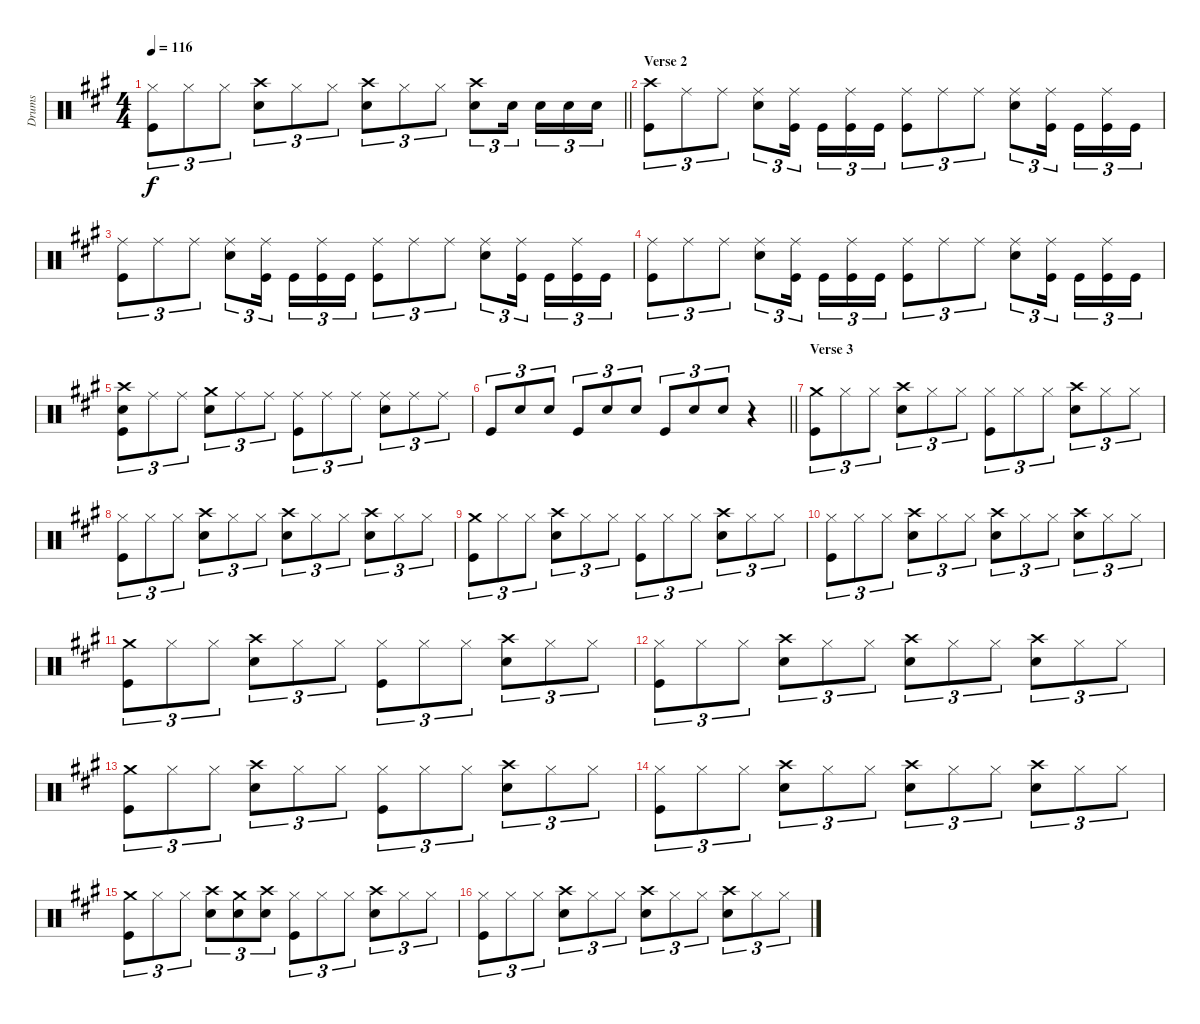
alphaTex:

\track ("Drums" "Drums") {instrument percussion}
\staff {score}
\articulation defaults
\ts (4 4)
\tempo 116
\clef neutral
\barLineRight lightlight
\ks a
("Hi-Hat (closed)" "Kick (hit)").8{tu (3 2) dy f} "Hi-Hat (closed)".8{tu (3 2)} "Hi-Hat (closed)".8{tu (3 2)} ("Crash high (hit)" "Snare (hit) 2").8{tu (3 2)} "Hi-Hat (closed)".8{tu (3 2)} "Hi-Hat (closed)".8{tu (3 2)} ("Crash high (hit)" "Snare (hit) 2").8{tu (3 2)} "Hi-Hat (closed)".8{tu (3 2)} "Hi-Hat (closed)".8{tu (3 2)} ("Crash high (hit)" "Snare (hit) 2").8{tu (3 2)} "Snare (hit) 2".16{tu (3 2) beam splitsecondary} "Snare (hit) 2".16{tu (3 2)} "Snare (hit) 2".16{tu (3 2)} "Snare (hit) 2".16{tu (3 2)} |
\section ("" "Verse 2")
("Crash high (hit)" "Kick (hit)").8{tu (3 2)} "Ride (middle)".8{tu (3 2)} "Ride (middle)".8{tu (3 2)} ("Ride (middle)" "Snare (hit) 2").8{tu (3 2)} ("Ride (middle)" "Kick (hit)").16{tu (3 2) beam splitsecondary} "Kick (hit)".16{tu (3 2)} ("Ride (middle)" "Kick (hit)").16{tu (3 2)} "Kick (hit)".16{tu (3 2)} ("Ride (middle)" "Kick (hit)").8{tu (3 2)} "Ride (middle)".8{tu (3 2)} "Ride (middle)".8{tu (3 2)} ("Ride (middle)" "Snare (hit) 2").8{tu (3 2)} ("Ride (middle)" "Kick (hit)").16{tu (3 2) beam splitsecondary} "Kick (hit)".16{tu (3 2)} ("Ride (middle)" "Kick (hit)").16{tu (3 2)} "Kick (hit)".16{tu (3 2)} |
("Ride (middle)" "Kick (hit)").8{tu (3 2)} "Ride (middle)".8{tu (3 2)} "Ride (middle)".8{tu (3 2)} ("Ride (middle)" "Snare (hit) 2").8{tu (3 2)} ("Ride (middle)" "Kick (hit)").16{tu (3 2) beam splitsecondary} "Kick (hit)".16{tu (3 2)} ("Ride (middle)" "Kick (hit)").16{tu (3 2)} "Kick (hit)".16{tu (3 2)} ("Ride (middle)" "Kick (hit)").8{tu (3 2)} "Ride (middle)".8{tu (3 2)} "Ride (middle)".8{tu (3 2)} ("Ride (middle)" "Snare (hit) 2").8{tu (3 2)} ("Ride (middle)" "Kick (hit)").16{tu (3 2) beam splitsecondary} "Kick (hit)".16{tu (3 2)} ("Ride (middle)" "Kick (hit)").16{tu (3 2)} "Kick (hit)".16{tu (3 2)} |
("Ride (middle)" "Kick (hit)").8{tu (3 2)} "Ride (middle)".8{tu (3 2)} "Ride (middle)".8{tu (3 2)} ("Ride (middle)" "Snare (hit) 2").8{tu (3 2)} ("Ride (middle)" "Kick (hit)").16{tu (3 2) beam splitsecondary} "Kick (hit)".16{tu (3 2)} ("Ride (middle)" "Kick (hit)").16{tu (3 2)} "Kick (hit)".16{tu (3 2)} ("Ride (middle)" "Kick (hit)").8{tu (3 2)} "Ride (middle)".8{tu (3 2)} "Ride (middle)".8{tu (3 2)} ("Ride (middle)" "Snare (hit) 2").8{tu (3 2)} ("Ride (middle)" "Kick (hit)").16{tu (3 2) beam splitsecondary} "Kick (hit)".16{tu (3 2)} ("Ride (middle)" "Kick (hit)").16{tu (3 2)} "Kick (hit)".16{tu (3 2)} |
("Crash high (hit)" "Snare (hit) 2" "Kick (hit)").8{tu (3 2)} "Ride (middle)".8{tu (3 2)} "Ride (middle)".8{tu (3 2)} ("Crash medium (hit)" "Snare (hit) 2").8{tu (3 2)} "Ride (middle)".8{tu (3 2)} "Ride (middle)".8{tu (3 2)} ("Ride (middle)" "Kick (hit)").8{tu (3 2)} "Ride (middle)".8{tu (3 2)} "Ride (middle)".8{tu (3 2)} ("Ride (middle)" "Snare (hit) 2").8{tu (3 2)} "Ride (middle)".8{tu (3 2)} "Ride (middle)".8{tu (3 2)} |
\barLineRight lightlight "Kick (hit)".8{tu (3 2)} "Snare (hit) 2".8{tu (3 2)} "Snare (hit) 2".8{tu (3 2)} "Kick (hit)".8{tu (3 2)} "Snare (hit) 2".8{tu (3 2)} "Snare (hit) 2".8{tu (3 2)} "Kick (hit)".8{tu (3 2)} "Snare (hit) 2".8{tu (3 2)} "Snare (hit) 2".8{tu (3 2)}
r.4 |
\section ("" "Verse 3")
("Crash medium (hit)" "Kick (hit)").8{tu (3 2)} "Hi-Hat (closed)".8{tu (3 2)} "Hi-Hat (closed)".8{tu (3 2)} ("Crash high (hit)" "Snare (hit) 2").8{tu (3 2)} "Hi-Hat (closed)".8{tu (3 2)} "Hi-Hat (closed)".8{tu (3 2)} ("Hi-Hat (closed)" "Kick (hit)").8{tu (3 2)} "Hi-Hat (closed)".8{tu (3 2)} "Hi-Hat (closed)".8{tu (3 2)} ("Crash high (hit)" "Snare (hit) 2").8{tu (3 2)} "Hi-Hat (closed)".8{tu (3 2)} "Hi-Hat (closed)".8{tu (3 2)} |
("Hi-Hat (closed)" "Kick (hit)").8{tu (3 2)} "Hi-Hat (closed)".8{tu (3 2)} "Hi-Hat (closed)".8{tu (3 2)} ("Crash high (hit)" "Snare (hit) 2").8{tu (3 2)} "Hi-Hat (closed)".8{tu (3 2)} "Hi-Hat (closed)".8{tu (3 2)} ("Crash high (hit)" "Snare (hit) 2").8{tu (3 2)} "Hi-Hat (closed)".8{tu (3 2)} "Hi-Hat (closed)".8{tu (3 2)} ("Crash high (hit)" "Snare (hit) 2").8{tu (3 2)} "Hi-Hat (closed)".8{tu (3 2)} "Hi-Hat (closed)".8{tu (3 2)} |
("Crash medium (hit)" "Kick (hit)").8{tu (3 2)} "Hi-Hat (closed)".8{tu (3 2)} "Hi-Hat (closed)".8{tu (3 2)} ("Crash high (hit)" "Snare (hit) 2").8{tu (3 2)} "Hi-Hat (closed)".8{tu (3 2)} "Hi-Hat (closed)".8{tu (3 2)} ("Hi-Hat (closed)" "Kick (hit)").8{tu (3 2)} "Hi-Hat (closed)".8{tu (3 2)} "Hi-Hat (closed)".8{tu (3 2)} ("Crash high (hit)" "Snare (hit) 2").8{tu (3 2)} "Hi-Hat (closed)".8{tu (3 2)} "Hi-Hat (closed)".8{tu (3 2)} |
("Hi-Hat (closed)" "Kick (hit)").8{tu (3 2)} "Hi-Hat (closed)".8{tu (3 2)} "Hi-Hat (closed)".8{tu (3 2)} ("Crash high (hit)" "Snare (hit) 2").8{tu (3 2)} "Hi-Hat (closed)".8{tu (3 2)} "Hi-Hat (closed)".8{tu (3 2)} ("Crash high (hit)" "Snare (hit) 2").8{tu (3 2)} "Hi-Hat (closed)".8{tu (3 2)} "Hi-Hat (closed)".8{tu (3 2)} ("Crash high (hit)" "Snare (hit) 2").8{tu (3 2)} "Hi-Hat (closed)".8{tu (3 2)} "Hi-Hat (closed)".8{tu (3 2)} |
("Crash medium (hit)" "Kick (hit)").8{tu (3 2)} "Hi-Hat (closed)".8{tu (3 2)} "Hi-Hat (closed)".8{tu (3 2)} ("Crash high (hit)" "Snare (hit) 2").8{tu (3 2)} "Hi-Hat (closed)".8{tu (3 2)} "Hi-Hat (closed)".8{tu (3 2)} ("Hi-Hat (closed)" "Kick (hit)").8{tu (3 2)} "Hi-Hat (closed)".8{tu (3 2)} "Hi-Hat (closed)".8{tu (3 2)} ("Crash high (hit)" "Snare (hit) 2").8{tu (3 2)} "Hi-Hat (closed)".8{tu (3 2)} "Hi-Hat (closed)".8{tu (3 2)} |
("Hi-Hat (closed)" "Kick (hit)").8{tu (3 2)} "Hi-Hat (closed)".8{tu (3 2)} "Hi-Hat (closed)".8{tu (3 2)} ("Crash high (hit)" "Snare (hit) 2").8{tu (3 2)} "Hi-Hat (closed)".8{tu (3 2)} "Hi-Hat (closed)".8{tu (3 2)} ("Crash high (hit)" "Snare (hit) 2").8{tu (3 2)} "Hi-Hat (closed)".8{tu (3 2)} "Hi-Hat (closed)".8{tu (3 2)} ("Crash high (hit)" "Snare (hit) 2").8{tu (3 2)} "Hi-Hat (closed)".8{tu (3 2)} "Hi-Hat (closed)".8{tu (3 2)} |
("Crash medium (hit)" "Kick (hit)").8{tu (3 2)} "Hi-Hat (closed)".8{tu (3 2)} "Hi-Hat (closed)".8{tu (3 2)} ("Crash high (hit)" "Snare (hit) 2").8{tu (3 2)} "Hi-Hat (closed)".8{tu (3 2)} "Hi-Hat (closed)".8{tu (3 2)} ("Hi-Hat (closed)" "Kick (hit)").8{tu (3 2)} "Hi-Hat (closed)".8{tu (3 2)} "Hi-Hat (closed)".8{tu (3 2)} ("Crash high (hit)" "Snare (hit) 2").8{tu (3 2)} "Hi-Hat (closed)".8{tu (3 2)} "Hi-Hat (closed)".8{tu (3 2)} |
("Hi-Hat (closed)" "Kick (hit)").8{tu (3 2)} "Hi-Hat (closed)".8{tu (3 2)} "Hi-Hat (closed)".8{tu (3 2)} ("Crash high (hit)" "Snare (hit) 2").8{tu (3 2)} "Hi-Hat (closed)".8{tu (3 2)} "Hi-Hat (closed)".8{tu (3 2)} ("Crash high (hit)" "Snare (hit) 2").8{tu (3 2)} "Hi-Hat (closed)".8{tu (3 2)} "Hi-Hat (closed)".8{tu (3 2)} ("Crash high (hit)" "Snare (hit) 2").8{tu (3 2)} "Hi-Hat (closed)".8{tu (3 2)} "Hi-Hat (closed)".8{tu (3 2)} |
("Crash medium (hit)" "Kick (hit)").8{tu (3 2)} "Hi-Hat (closed)".8{tu (3 2)} "Hi-Hat (closed)".8{tu (3 2)} ("Crash high (hit)" "Snare (hit) 2").8{tu (3 2)} ("Crash medium (hit)" "Snare (hit) 2").8{tu (3 2)} ("Crash high (hit)" "Snare (hit) 2").8{tu (3 2)} ("Hi-Hat (closed)" "Kick (hit)").8{tu (3 2)} "Hi-Hat (closed)".8{tu (3 2)} "Hi-Hat (closed)".8{tu (3 2)} ("Crash high (hit)" "Snare (hit) 2").8{tu (3 2)} "Hi-Hat (closed)".8{tu (3 2)} "Hi-Hat (closed)".8{tu (3 2)} |
("Hi-Hat (closed)" "Kick (hit)").8{tu (3 2)} "Hi-Hat (closed)".8{tu (3 2)} "Hi-Hat (closed)".8{tu (3 2)} ("Crash high (hit)" "Snare (hit) 2").8{tu (3 2)} "Hi-Hat (closed)".8{tu (3 2)} "Hi-Hat (closed)".8{tu (3 2)} ("Crash high (hit)" "Snare (hit) 2").8{tu (3 2)} "Hi-Hat (closed)".8{tu (3 2)} "Hi-Hat (closed)".8{tu (3 2)} ("Crash high (hit)" "Snare (hit) 2").8{tu (3 2)} "Hi-Hat (closed)".8{tu (3 2)} "Hi-Hat (closed)".8{tu (3 2)}
